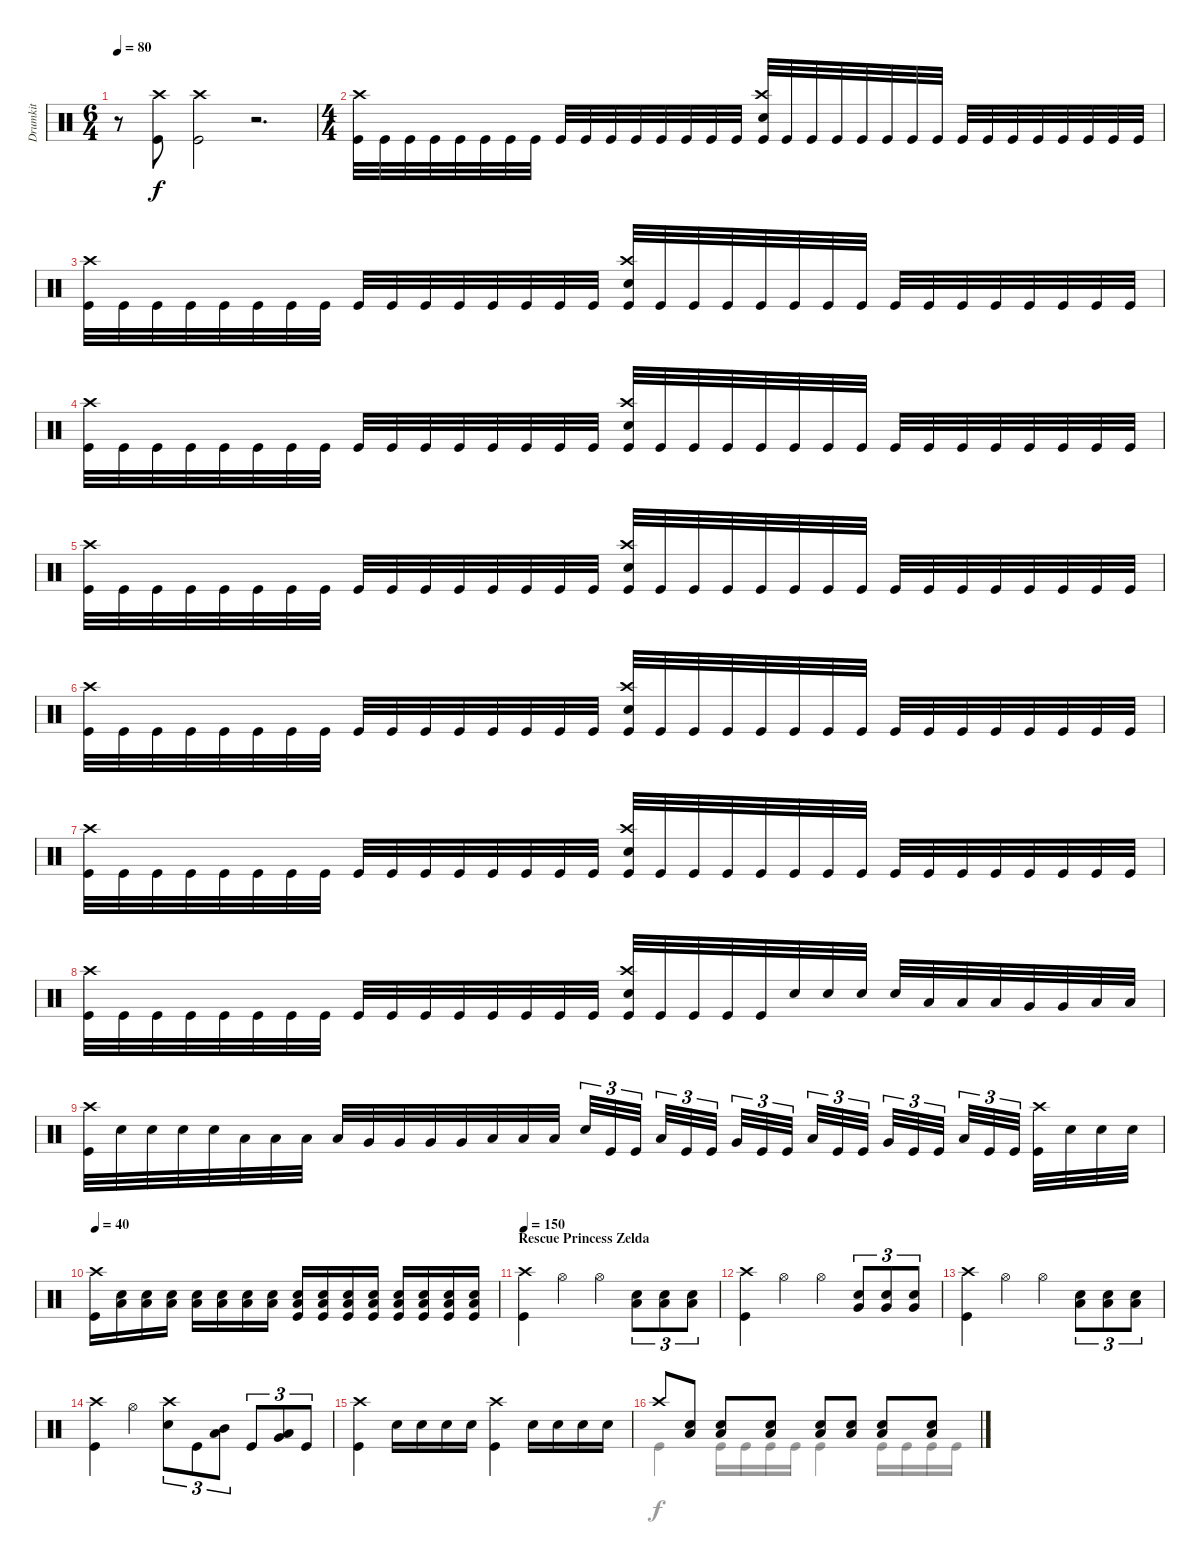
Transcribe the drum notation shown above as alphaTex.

\track ("Drumkit" "Drumkit") {instrument percussion}
\staff {score}
\articulation defaults
\voice
\ts (6 4)
\tempo 80
\clef neutral
\ks c
r.8{dy f} ("Kick (hit)" "Crash high (hit)").8 ("Kick (hit)" "Crash high (hit)").2 r.2{d} |
\ts (4 4)
("Kick (hit)" "Crash high (hit)").32 "Kick (hit)".32 "Kick (hit)".32 "Kick (hit)".32 "Kick (hit)".32 "Kick (hit)".32 "Kick (hit)".32 "Kick (hit)".32 "Kick (hit)".32 "Kick (hit)".32 "Kick (hit)".32 "Kick (hit)".32 "Kick (hit)".32 "Kick (hit)".32 "Kick (hit)".32 "Kick (hit)".32 ("Kick (hit)" "Crash high (hit)" "Snare (hit) 2").32 "Kick (hit)".32 "Kick (hit)".32 "Kick (hit)".32 "Kick (hit)".32 "Kick (hit)".32 "Kick (hit)".32 "Kick (hit)".32 "Kick (hit)".32 "Kick (hit)".32 "Kick (hit)".32 "Kick (hit)".32 "Kick (hit)".32 "Kick (hit)".32 "Kick (hit)".32 "Kick (hit)".32 |
("Kick (hit)" "Crash high (hit)").32 "Kick (hit)".32 "Kick (hit)".32 "Kick (hit)".32 "Kick (hit)".32 "Kick (hit)".32 "Kick (hit)".32 "Kick (hit)".32 "Kick (hit)".32 "Kick (hit)".32 "Kick (hit)".32 "Kick (hit)".32 "Kick (hit)".32 "Kick (hit)".32 "Kick (hit)".32 "Kick (hit)".32 ("Kick (hit)" "Crash high (hit)" "Snare (hit) 2").32 "Kick (hit)".32 "Kick (hit)".32 "Kick (hit)".32 "Kick (hit)".32 "Kick (hit)".32 "Kick (hit)".32 "Kick (hit)".32 "Kick (hit)".32 "Kick (hit)".32 "Kick (hit)".32 "Kick (hit)".32 "Kick (hit)".32 "Kick (hit)".32 "Kick (hit)".32 "Kick (hit)".32 |
("Kick (hit)" "Crash high (hit)").32 "Kick (hit)".32 "Kick (hit)".32 "Kick (hit)".32 "Kick (hit)".32 "Kick (hit)".32 "Kick (hit)".32 "Kick (hit)".32 "Kick (hit)".32 "Kick (hit)".32 "Kick (hit)".32 "Kick (hit)".32 "Kick (hit)".32 "Kick (hit)".32 "Kick (hit)".32 "Kick (hit)".32 ("Kick (hit)" "Crash high (hit)" "Snare (hit) 2").32 "Kick (hit)".32 "Kick (hit)".32 "Kick (hit)".32 "Kick (hit)".32 "Kick (hit)".32 "Kick (hit)".32 "Kick (hit)".32 "Kick (hit)".32 "Kick (hit)".32 "Kick (hit)".32 "Kick (hit)".32 "Kick (hit)".32 "Kick (hit)".32 "Kick (hit)".32 "Kick (hit)".32 |
("Kick (hit)" "Crash high (hit)").32 "Kick (hit)".32 "Kick (hit)".32 "Kick (hit)".32 "Kick (hit)".32 "Kick (hit)".32 "Kick (hit)".32 "Kick (hit)".32 "Kick (hit)".32 "Kick (hit)".32 "Kick (hit)".32 "Kick (hit)".32 "Kick (hit)".32 "Kick (hit)".32 "Kick (hit)".32 "Kick (hit)".32 ("Kick (hit)" "Crash high (hit)" "Snare (hit) 2").32 "Kick (hit)".32 "Kick (hit)".32 "Kick (hit)".32 "Kick (hit)".32 "Kick (hit)".32 "Kick (hit)".32 "Kick (hit)".32 "Kick (hit)".32 "Kick (hit)".32 "Kick (hit)".32 "Kick (hit)".32 "Kick (hit)".32 "Kick (hit)".32 "Kick (hit)".32 "Kick (hit)".32 |
("Kick (hit)" "Crash high (hit)").32 "Kick (hit)".32 "Kick (hit)".32 "Kick (hit)".32 "Kick (hit)".32 "Kick (hit)".32 "Kick (hit)".32 "Kick (hit)".32 "Kick (hit)".32 "Kick (hit)".32 "Kick (hit)".32 "Kick (hit)".32 "Kick (hit)".32 "Kick (hit)".32 "Kick (hit)".32 "Kick (hit)".32 ("Kick (hit)" "Crash high (hit)" "Snare (hit) 2").32 "Kick (hit)".32 "Kick (hit)".32 "Kick (hit)".32 "Kick (hit)".32 "Kick (hit)".32 "Kick (hit)".32 "Kick (hit)".32 "Kick (hit)".32 "Kick (hit)".32 "Kick (hit)".32 "Kick (hit)".32 "Kick (hit)".32 "Kick (hit)".32 "Kick (hit)".32 "Kick (hit)".32 |
("Kick (hit)" "Crash high (hit)").32 "Kick (hit)".32 "Kick (hit)".32 "Kick (hit)".32 "Kick (hit)".32 "Kick (hit)".32 "Kick (hit)".32 "Kick (hit)".32 "Kick (hit)".32 "Kick (hit)".32 "Kick (hit)".32 "Kick (hit)".32 "Kick (hit)".32 "Kick (hit)".32 "Kick (hit)".32 "Kick (hit)".32 ("Kick (hit)" "Crash high (hit)" "Snare (hit) 2").32 "Kick (hit)".32 "Kick (hit)".32 "Kick (hit)".32 "Kick (hit)".32 "Kick (hit)".32 "Kick (hit)".32 "Kick (hit)".32 "Kick (hit)".32 "Kick (hit)".32 "Kick (hit)".32 "Kick (hit)".32 "Kick (hit)".32 "Kick (hit)".32 "Kick (hit)".32 "Kick (hit)".32 |
("Kick (hit)" "Crash high (hit)").32 "Kick (hit)".32 "Kick (hit)".32 "Kick (hit)".32 "Kick (hit)".32 "Kick (hit)".32 "Kick (hit)".32 "Kick (hit)".32 "Kick (hit)".32 "Kick (hit)".32 "Kick (hit)".32 "Kick (hit)".32 "Kick (hit)".32 "Kick (hit)".32 "Kick (hit)".32 "Kick (hit)".32 ("Kick (hit)" "Crash high (hit)" "Snare (hit) 2").32 "Kick (hit)".32 "Kick (hit)".32 "Kick (hit)".32 "Kick (hit)".32 "Snare (hit) 2".32 "Snare (hit) 2".32 "Snare (hit) 2".32 "Snare (hit) 2".32 "Low Tom (hit)".32 "Low Tom (hit)".32 "Low Tom (hit)".32 "Very Low Tom (hit)".32 "Very Low Tom (hit)".32 "Low Floor Tom (hit)".32 "Low Floor Tom (hit)".32 |
("Kick (hit)" "Crash high (hit)").32 "Snare (hit) 2".32 "Snare (hit) 2".32 "Snare (hit) 2".32 "Snare (hit) 2".32 "Low Tom (hit)".32 "Low Tom (hit)".32 "Low Tom (hit)".32 "Low Tom (hit)".32 "Very Low Tom (hit)".32 "Very Low Tom (hit)".32 "Very Low Tom (hit)".32 "Very Low Tom (hit)".32 "Low Floor Tom (hit)".32 "Low Floor Tom (hit)".32 "Low Floor Tom (hit)".32 "Snare (hit) 2".32{tu (3 2)} "Kick (hit)".32{tu (3 2)} "Kick (hit)".32{tu (3 2)} "Low Tom (hit)".32{tu (3 2)} "Kick (hit)".32{tu (3 2)} "Kick (hit)".32{tu (3 2)} "Very Low Tom (hit)".32{tu (3 2)} "Kick (hit)".32{tu (3 2)} "Kick (hit)".32{tu (3 2)} "Low Tom (hit)".32{tu (3 2)} "Kick (hit)".32{tu (3 2)} "Kick (hit)".32{tu (3 2)} "Very Low Tom (hit)".32{tu (3 2)} "Kick (hit)".32{tu (3 2)} "Kick (hit)".32{tu (3 2)} "Low Floor Tom (hit)".32{tu (3 2)} "Kick (hit)".32{tu (3 2)} "Kick (hit)".32{tu (3 2)} ("Kick (hit)" "Crash high (hit)").32 "Snare (hit) 2".32 "Snare (hit) 2".32 "Snare (hit) 2".32 |
\tempo 40
("Kick (hit)" "Crash high (hit)").16 ("Low Floor Tom (hit)" "Snare (hit) 2").16 ("Low Floor Tom (hit)" "Snare (hit) 2").16 ("Low Floor Tom (hit)" "Snare (hit) 2").16 ("Low Floor Tom (hit)" "Snare (hit) 2").16 ("Low Floor Tom (hit)" "Snare (hit) 2").16 ("Low Floor Tom (hit)" "Snare (hit) 2").16 ("Low Floor Tom (hit)" "Snare (hit) 2").16 ("Low Floor Tom (hit)" "Snare (hit) 2" "Kick (hit)").16 ("Low Floor Tom (hit)" "Snare (hit) 2" "Kick (hit)").16 ("Low Floor Tom (hit)" "Snare (hit) 2" "Kick (hit)").16 ("Low Floor Tom (hit)" "Snare (hit) 2" "Kick (hit)").16 ("Low Floor Tom (hit)" "Snare (hit) 2" "Kick (hit)").16 ("Low Floor Tom (hit)" "Snare (hit) 2" "Kick (hit)").16 ("Low Floor Tom (hit)" "Snare (hit) 2" "Kick (hit)").16 ("Low Floor Tom (hit)" "Snare (hit) 2" "Kick (hit)").16 |
\section ("" "Rescue Princess Zelda")
\tempo 150
("Kick (hit)" "Crash high (hit)").4 "Hi-Hat (open)".4 "Hi-Hat (open)".4 ("Snare (hit) 2" "Low Tom (hit)").8{tu (3 2)} ("Snare (hit) 2" "Low Tom (hit)").8{tu (3 2)} ("Snare (hit) 2" "Low Tom (hit)").8{tu (3 2)} |
("Kick (hit)" "Crash high (hit)").4 "Hi-Hat (open)".4 "Hi-Hat (open)".4 ("Snare (hit) 2" "Very Low Tom (hit)").8{tu (3 2)} ("Snare (hit) 2" "Very Low Tom (hit)").8{tu (3 2)} ("Snare (hit) 2" "Very Low Tom (hit)").8{tu (3 2)} |
("Kick (hit)" "Crash high (hit)").4 "Hi-Hat (open)".4 "Hi-Hat (open)".4 ("Snare (hit) 2" "Low Floor Tom (hit)").8{tu (3 2)} ("Snare (hit) 2" "Low Floor Tom (hit)").8{tu (3 2)} ("Snare (hit) 2" "Low Floor Tom (hit)").8{tu (3 2)} |
("Kick (hit)" "Crash high (hit)").4 "Hi-Hat (open)".4 ("Snare (hit) 2" "Crash high (hit)").8{tu (3 2)} "Kick (hit)".8{tu (3 2)} ("Mid Tom (hit)" "Low Tom (hit)").8{tu (3 2)} "Kick (hit)".8{tu (3 2)} ("Very Low Tom (hit)" "Low Floor Tom (hit)").8{tu (3 2)} "Kick (hit)".8{tu (3 2)} |
("Kick (hit)" "Crash high (hit)").4 "Snare (hit) 2".16 "Snare (hit) 2".16 "Snare (hit) 2".16 "Snare (hit) 2".16 ("Kick (hit)" "Crash high (hit)").4 "Snare (hit) 2".16 "Snare (hit) 2".16 "Snare (hit) 2".16 "Snare (hit) 2".16 |
"Crash high (hit)".8 ("Low Floor Tom (hit)" "Snare (hit) 2").8 ("Low Floor Tom (hit)" "Snare (hit) 2").8 ("Low Floor Tom (hit)" "Snare (hit) 2").8 ("Low Floor Tom (hit)" "Snare (hit) 2").8 ("Low Floor Tom (hit)" "Snare (hit) 2").8 ("Low Floor Tom (hit)" "Snare (hit) 2").8 ("Low Floor Tom (hit)" "Snare (hit) 2").8
\voice
\clef neutral
\ottava regular
\simile none
\ks c
|
|
|
|
|
|
|
|
|
|
|
|
|
|
|
"Kick (hit)".4 "Kick (hit)".16 "Kick (hit)".16 "Kick (hit)".16 "Kick (hit)".16 "Kick (hit)".4 "Kick (hit)".16 "Kick (hit)".16 "Kick (hit)".16 "Kick (hit)".16
